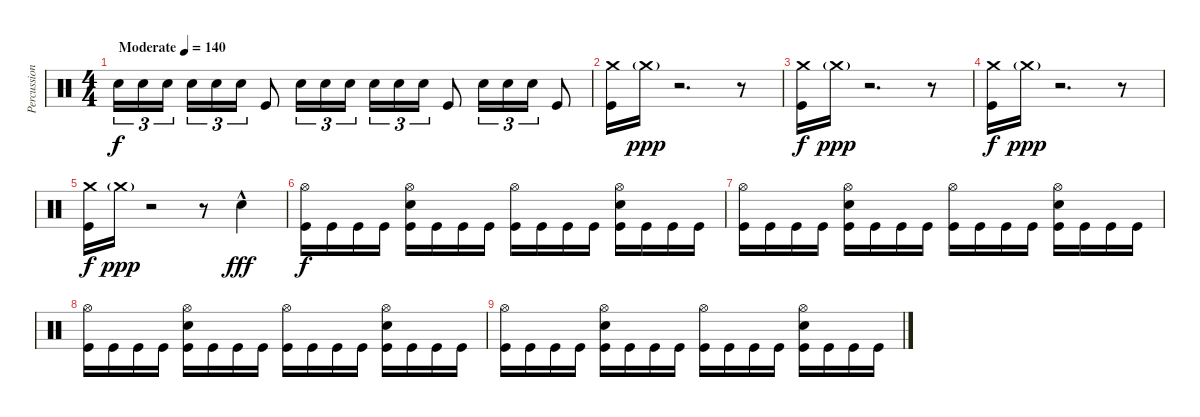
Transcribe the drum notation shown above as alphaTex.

\track ("Percussion" "Percussion") {instrument percussion}
\staff {score}
\articulation defaults
\ts (4 4)
\tempo (140 "Moderate")
\clef neutral
\ks c "Snare (hit) 2".16{tu (3 2) dy f} "Snare (hit) 2".16{tu (3 2)} "Snare (hit) 2".16{tu (3 2) beam splitsecondary} "Snare (hit) 2".16{tu (3 2)} "Snare (hit) 2".16{tu (3 2)} "Snare (hit) 2".16{tu (3 2)} "Kick (hit)".8 "Snare (hit) 2".16{tu (3 2)} "Snare (hit) 2".16{tu (3 2)} "Snare (hit) 2".16{tu (3 2)} "Snare (hit) 2".16{tu (3 2)} "Snare (hit) 2".16{tu (3 2)} "Snare (hit) 2".16{tu (3 2)} "Kick (hit)".8 "Snare (hit) 2".16{tu (3 2)} "Snare (hit) 2".16{tu (3 2)} "Snare (hit) 2".16{tu (3 2)} "Kick (hit)".8
|
("Crash medium (hit)" "Kick (hit)").16 "Crash medium (hit)"{g}.16{dy ppp} r.2{d} r.8 |
("Crash medium (hit)" "Kick (hit)").16{dy f} "Crash medium (hit)"{g}.16{dy ppp} r.2{d} r.8 |
("Crash medium (hit)" "Kick (hit)").16{dy f} "Crash medium (hit)"{g}.16{dy ppp} r.2{d} r.8 |
("Crash medium (hit)" "Kick (hit)").16{dy f} "Crash medium (hit)"{g}.16{dy ppp} r.2 r.8 "Snare (hit) 2"{hac}.4{dy fff} |
("Hi-Hat (open)" "Kick (hit)").16{dy f} "Kick (hit)".16 "Kick (hit)".16 "Kick (hit)".16 ("Hi-Hat (open)" "Snare (hit) 2" "Kick (hit)").16 "Kick (hit)".16 "Kick (hit)".16 "Kick (hit)".16 ("Hi-Hat (open)" "Kick (hit)").16 "Kick (hit)".16 "Kick (hit)".16 "Kick (hit)".16 ("Hi-Hat (open)" "Snare (hit) 2" "Kick (hit)").16 "Kick (hit)".16 "Kick (hit)".16 "Kick (hit)".16 |
("Hi-Hat (open)" "Kick (hit)").16 "Kick (hit)".16 "Kick (hit)".16 "Kick (hit)".16 ("Hi-Hat (open)" "Snare (hit) 2" "Kick (hit)").16 "Kick (hit)".16 "Kick (hit)".16 "Kick (hit)".16 ("Hi-Hat (open)" "Kick (hit)").16 "Kick (hit)".16 "Kick (hit)".16 "Kick (hit)".16 ("Hi-Hat (open)" "Snare (hit) 2" "Kick (hit)").16 "Kick (hit)".16 "Kick (hit)".16 "Kick (hit)".16 |
("Hi-Hat (open)" "Kick (hit)").16 "Kick (hit)".16 "Kick (hit)".16 "Kick (hit)".16 ("Hi-Hat (open)" "Snare (hit) 2" "Kick (hit)").16 "Kick (hit)".16 "Kick (hit)".16 "Kick (hit)".16 ("Hi-Hat (open)" "Kick (hit)").16 "Kick (hit)".16 "Kick (hit)".16 "Kick (hit)".16 ("Hi-Hat (open)" "Snare (hit) 2" "Kick (hit)").16 "Kick (hit)".16 "Kick (hit)".16 "Kick (hit)".16 |
("Hi-Hat (open)" "Kick (hit)").16 "Kick (hit)".16 "Kick (hit)".16 "Kick (hit)".16 ("Hi-Hat (open)" "Snare (hit) 2" "Kick (hit)").16 "Kick (hit)".16 "Kick (hit)".16 "Kick (hit)".16 ("Hi-Hat (open)" "Kick (hit)").16 "Kick (hit)".16 "Kick (hit)".16 "Kick (hit)".16 ("Hi-Hat (open)" "Snare (hit) 2" "Kick (hit)").16 "Kick (hit)".16 "Kick (hit)".16 "Kick (hit)".16
